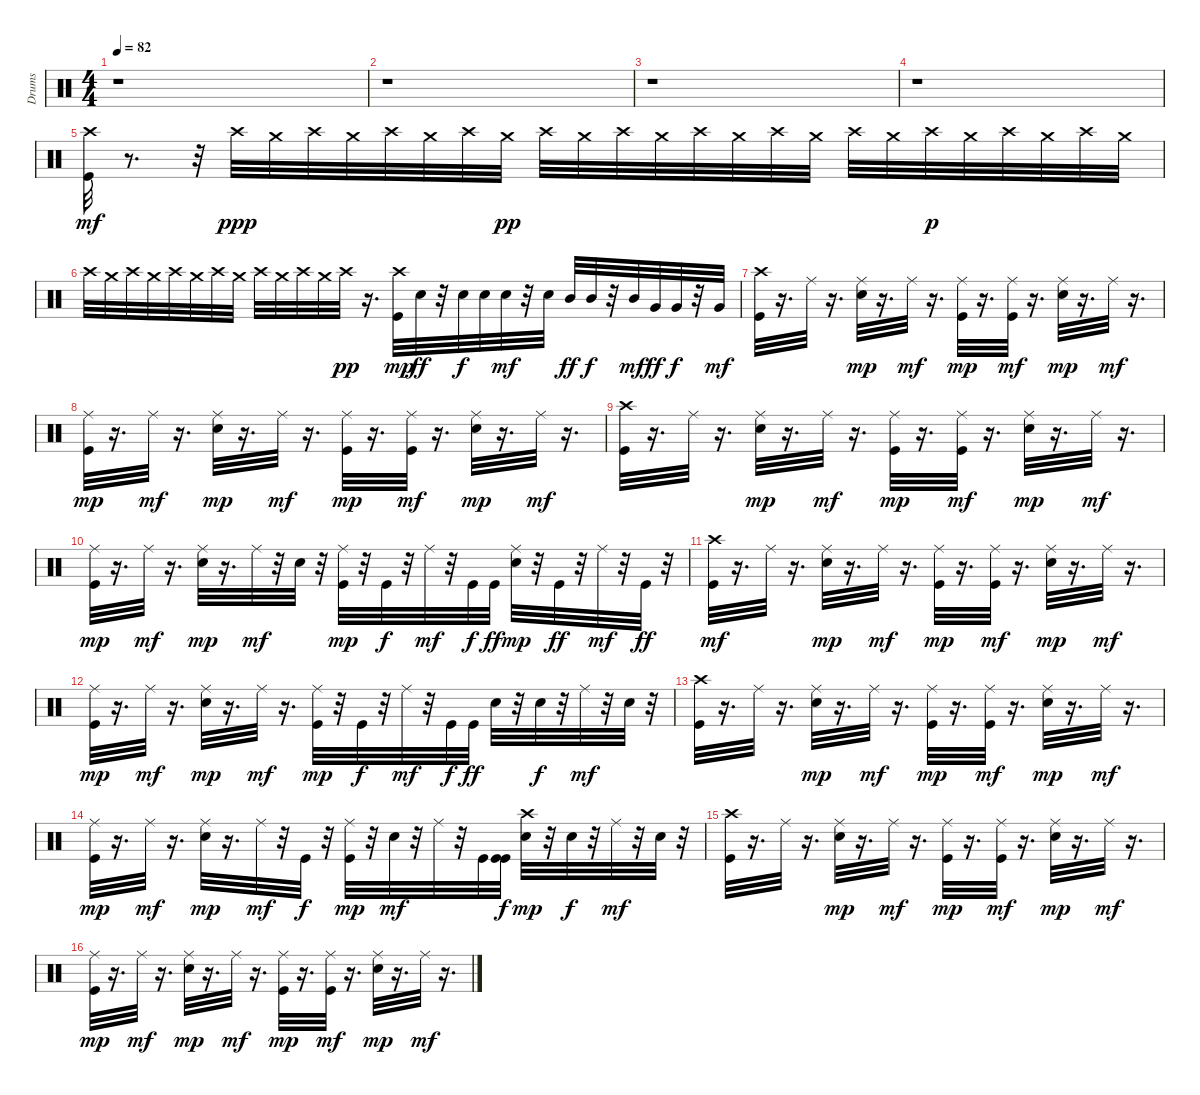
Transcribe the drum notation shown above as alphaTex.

\track ("Drums" "Drums") {instrument percussion}
\staff {score}
\articulation defaults
\ts (4 4)
\tempo 82
\clef neutral
\ks c
r.1{dy mf} |
r.1 |
r.1 |
r.1 |
("Kick (hit)" "Crash high (hit)").32 r.8{d} r.32 "Crash high (hit)".32{dy ppp} "Crash medium (hit)".32 "Crash high (hit)".32 "Crash medium (hit)".32 "Crash high (hit)".32 "Crash medium (hit)".32 "Crash high (hit)".32 "Crash medium (hit)".32{dy pp} "Crash high (hit)".32 "Crash medium (hit)".32 "Crash high (hit)".32 "Crash medium (hit)".32 "Crash high (hit)".32 "Crash medium (hit)".32 "Crash high (hit)".32 "Crash medium (hit)".32 "Crash high (hit)".32 "Crash medium (hit)".32 "Crash high (hit)".32{dy p} "Crash medium (hit)".32 "Crash high (hit)".32 "Crash medium (hit)".32 "Crash high (hit)".32 "Crash medium (hit)".32 |
"Crash high (hit)".32 "Crash medium (hit)".32 "Crash high (hit)".32 "Crash medium (hit)".32 "Crash high (hit)".32 "Crash medium (hit)".32 "Crash high (hit)".32 "Crash medium (hit)".32 "Crash high (hit)".32 "Crash medium (hit)".32 "Crash high (hit)".32 "Crash medium (hit)".32 "Crash high (hit)".32{dy pp} r.16{d} ("Kick (hit)" "Crash high (hit)").32{dy mp} "Snare (hit) 2".32{dy ff} r.32 "Snare (hit) 2".32{dy f} "Snare (hit) 2".32 "Snare (hit) 2".32{dy mf} r.32 "Snare (hit) 2".32 "Mid Tom (hit)".32{dy ff} "Mid Tom (hit)".32{dy f} r.32 "Mid Tom (hit)".32{dy mf} "Very Low Tom (hit)".32{dy ff} "Very Low Tom (hit)".32{dy f} r.32 "Very Low Tom (hit)".32{dy mf} |
("Kick (hit)" "Crash high (hit)").32 r.16{d} "Ride (middle)".32 r.16{d} ("Snare (hit) 2" "Ride (middle)").32{dy mp} r.16{d} "Ride (middle)".32{dy mf} r.16{d} ("Kick (hit)" "Ride (middle)").32{dy mp} r.16{d} ("Kick (hit)" "Ride (middle)").32{dy mf} r.16{d} ("Snare (hit) 2" "Ride (middle)").32{dy mp} r.16{d} "Ride (middle)".32{dy mf} r.16{d} |
("Kick (hit)" "Ride (middle)").32{dy mp} r.16{d} "Ride (middle)".32{dy mf} r.16{d} ("Snare (hit) 2" "Ride (middle)").32{dy mp} r.16{d} "Ride (middle)".32{dy mf} r.16{d} ("Kick (hit)" "Ride (middle)").32{dy mp} r.16{d} ("Kick (hit)" "Ride (middle)").32{dy mf} r.16{d} ("Snare (hit) 2" "Ride (middle)").32{dy mp} r.16{d} "Ride (middle)".32{dy mf} r.16{d} |
("Kick (hit)" "Crash high (hit)").32 r.16{d} "Ride (middle)".32 r.16{d} ("Snare (hit) 2" "Ride (middle)").32{dy mp} r.16{d} "Ride (middle)".32{dy mf} r.16{d} ("Kick (hit)" "Ride (middle)").32{dy mp} r.16{d} ("Kick (hit)" "Ride (middle)").32{dy mf} r.16{d} ("Snare (hit) 2" "Ride (middle)").32{dy mp} r.16{d} "Ride (middle)".32{dy mf} r.16{d} |
("Kick (hit)" "Ride (middle)").32{dy mp} r.16{d} "Ride (middle)".32{dy mf} r.16{d} ("Snare (hit) 2" "Ride (middle)").32{dy mp} r.16{d} "Ride (middle)".32{dy mf} r.32 "Snare (hit) 2".32 r.32 ("Kick (hit)" "Ride (middle)").32{dy mp} r.32 "Kick (hit)".32{dy f} r.32 "Ride (middle)".32{dy mf} r.32 "Kick (hit)".32{dy f} "Kick (hit)".32{dy ff} ("Snare (hit) 2" "Ride (middle)").32{dy mp} r.32 "Kick (hit)".32{dy ff} r.32 "Ride (middle)".32{dy mf} r.32 "Kick (hit)".32{dy ff} r.32 |
("Kick (hit)" "Crash high (hit)").32{dy mf} r.16{d} "Ride (middle)".32 r.16{d} ("Snare (hit) 2" "Ride (middle)").32{dy mp} r.16{d} "Ride (middle)".32{dy mf} r.16{d} ("Kick (hit)" "Ride (middle)").32{dy mp} r.16{d} ("Kick (hit)" "Ride (middle)").32{dy mf} r.16{d} ("Snare (hit) 2" "Ride (middle)").32{dy mp} r.16{d} "Ride (middle)".32{dy mf} r.16{d} |
("Kick (hit)" "Ride (middle)").32{dy mp} r.16{d} "Ride (middle)".32{dy mf} r.16{d} ("Snare (hit) 2" "Ride (middle)").32{dy mp} r.16{d} "Ride (middle)".32{dy mf} r.16{d} ("Kick (hit)" "Ride (middle)").32{dy mp} r.32 "Kick (hit)".32{dy f} r.32 "Ride (middle)".32{dy mf} r.32 "Kick (hit)".32{dy f} "Kick (hit)".32{dy ff} "Snare (hit) 2".32 r.32 "Snare (hit) 2".32{dy f} r.32 "Ride (middle)".32{dy mf} r.32 "Snare (hit) 2".32 r.32 |
("Kick (hit)" "Crash high (hit)").32 r.16{d} "Ride (middle)".32 r.16{d} ("Snare (hit) 2" "Ride (middle)").32{dy mp} r.16{d} "Ride (middle)".32{dy mf} r.16{d} ("Kick (hit)" "Ride (middle)").32{dy mp} r.16{d} ("Kick (hit)" "Ride (middle)").32{dy mf} r.16{d} ("Snare (hit) 2" "Ride (middle)").32{dy mp} r.16{d} "Ride (middle)".32{dy mf} r.16{d} |
("Kick (hit)" "Ride (middle)").32{dy mp} r.16{d} "Ride (middle)".32{dy mf} r.16{d} ("Snare (hit) 2" "Ride (middle)").32{dy mp} r.16{d} "Ride (middle)".32{dy mf} r.32 "Kick (hit)".32{dy f} r.32 ("Kick (hit)" "Ride (middle)").32{dy mp} r.32 "Snare (hit) 2".32{dy mf} r.32 "Ride (middle)".32 r.32 "Kick (hit)".32 ("Kick (hit)" "Kick (hit)").32{dy f} ("Snare (hit) 2" "Crash high (hit)").32{dy mp} r.32 "Snare (hit) 2".32{dy f} r.32 "Ride (middle)".32{dy mf} r.32 "Snare (hit) 2".32 r.32 |
("Kick (hit)" "Crash high (hit)").32 r.16{d} "Ride (middle)".32 r.16{d} ("Snare (hit) 2" "Ride (middle)").32{dy mp} r.16{d} "Ride (middle)".32{dy mf} r.16{d} ("Kick (hit)" "Ride (middle)").32{dy mp} r.16{d} ("Kick (hit)" "Ride (middle)").32{dy mf} r.16{d} ("Snare (hit) 2" "Ride (middle)").32{dy mp} r.16{d} "Ride (middle)".32{dy mf} r.16{d} |
("Kick (hit)" "Ride (middle)").32{dy mp} r.16{d} "Ride (middle)".32{dy mf} r.16{d} ("Snare (hit) 2" "Ride (middle)").32{dy mp} r.16{d} "Ride (middle)".32{dy mf} r.16{d} ("Kick (hit)" "Ride (middle)").32{dy mp} r.16{d} ("Kick (hit)" "Ride (middle)").32{dy mf} r.16{d} ("Snare (hit) 2" "Ride (middle)").32{dy mp} r.16{d} "Ride (middle)".32{dy mf} r.16{d}
